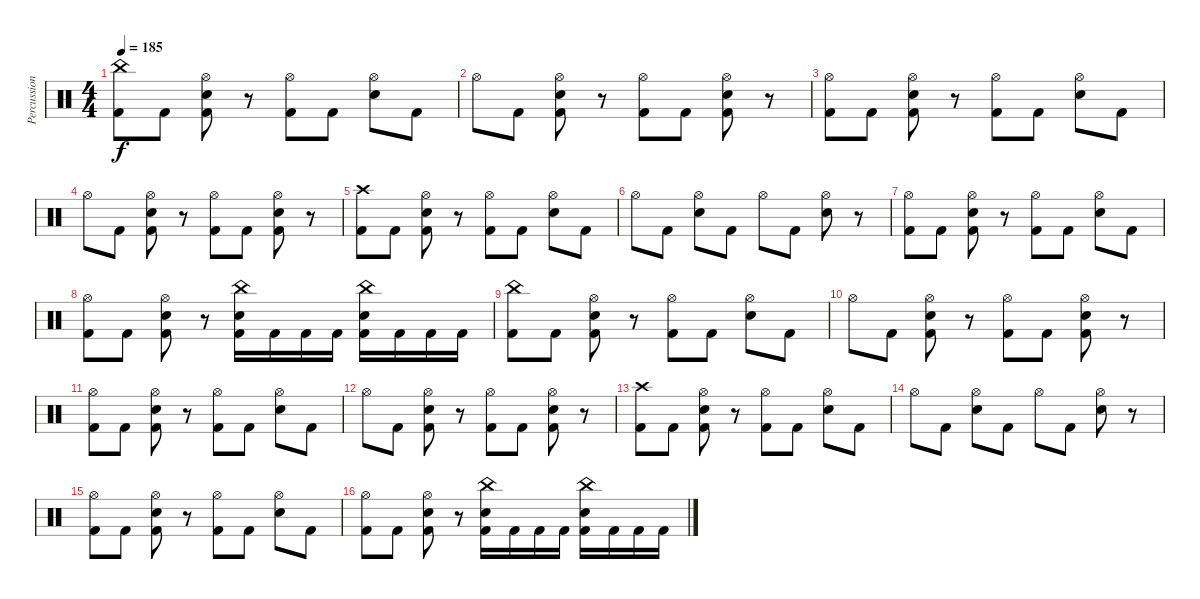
\track ("Percussion" "Percussion") {instrument percussion}
\staff {score}
\articulation defaults
\ts (4 4)
\tempo 185
\clef neutral
\ks c
("China (hit)" "Kick (hit) 2").8{dy f} "Kick (hit) 2".8 ("Snare (hit) 2" "Hi-Hat (open)" "Kick (hit) 2").8 r.8 ("Hi-Hat (open)" "Kick (hit) 2").8 "Kick (hit) 2".8 ("Snare (hit) 2" "Hi-Hat (open)").8 "Kick (hit) 2".8 |
"Hi-Hat (open)".8 "Kick (hit) 2".8 ("Snare (hit) 2" "Hi-Hat (open)" "Kick (hit) 2").8 r.8 ("Hi-Hat (open)" "Kick (hit) 2").8 "Kick (hit) 2".8 ("Snare (hit) 2" "Hi-Hat (open)" "Kick (hit) 2").8 r.8 |
("Hi-Hat (open)" "Kick (hit) 2").8 "Kick (hit) 2".8 ("Snare (hit) 2" "Hi-Hat (open)" "Kick (hit) 2").8 r.8 ("Hi-Hat (open)" "Kick (hit) 2").8 "Kick (hit) 2".8 ("Snare (hit) 2" "Hi-Hat (open)").8 "Kick (hit) 2".8 |
"Hi-Hat (open)".8 "Kick (hit) 2".8 ("Snare (hit) 2" "Hi-Hat (open)" "Kick (hit) 2").8 r.8 ("Hi-Hat (open)" "Kick (hit) 2").8 "Kick (hit) 2".8 ("Snare (hit) 2" "Hi-Hat (open)" "Kick (hit) 2").8 r.8 |
("Crash high (hit)" "Kick (hit) 2").8 "Kick (hit) 2".8 ("Snare (hit) 2" "Hi-Hat (open)" "Kick (hit) 2").8 r.8 ("Hi-Hat (open)" "Kick (hit) 2").8 "Kick (hit) 2".8 ("Snare (hit) 2" "Hi-Hat (open)").8 "Kick (hit) 2".8 |
"Hi-Hat (open)".8 "Kick (hit) 2".8 ("Snare (hit) 2" "Hi-Hat (open)").8 "Kick (hit) 2".8 "Hi-Hat (open)".8 "Kick (hit) 2".8 ("Snare (hit) 2" "Hi-Hat (open)").8 r.8 |
("Hi-Hat (open)" "Kick (hit) 2").8 "Kick (hit) 2".8 ("Snare (hit) 2" "Hi-Hat (open)" "Kick (hit) 2").8 r.8 ("Hi-Hat (open)" "Kick (hit) 2").8 "Kick (hit) 2".8 ("Snare (hit) 2" "Hi-Hat (open)").8 "Kick (hit) 2".8 |
("Hi-Hat (open)" "Kick (hit) 2").8 "Kick (hit) 2".8 ("Snare (hit) 2" "Hi-Hat (open)" "Kick (hit) 2").8 r.8 ("Snare (hit) 2" "China (hit)" "Kick (hit) 2").16 "Kick (hit) 2".16 "Kick (hit) 2".16 "Kick (hit) 2".16 ("Snare (hit) 2" "China (hit)" "Kick (hit) 2").16 "Kick (hit) 2".16 "Kick (hit) 2".16 "Kick (hit) 2".16 |
("China (hit)" "Kick (hit) 2").8 "Kick (hit) 2".8 ("Snare (hit) 2" "Hi-Hat (open)" "Kick (hit) 2").8 r.8 ("Hi-Hat (open)" "Kick (hit) 2").8 "Kick (hit) 2".8 ("Snare (hit) 2" "Hi-Hat (open)").8 "Kick (hit) 2".8 |
"Hi-Hat (open)".8 "Kick (hit) 2".8 ("Snare (hit) 2" "Hi-Hat (open)" "Kick (hit) 2").8 r.8 ("Hi-Hat (open)" "Kick (hit) 2").8 "Kick (hit) 2".8 ("Snare (hit) 2" "Hi-Hat (open)" "Kick (hit) 2").8 r.8 |
("Hi-Hat (open)" "Kick (hit) 2").8 "Kick (hit) 2".8 ("Snare (hit) 2" "Hi-Hat (open)" "Kick (hit) 2").8 r.8 ("Hi-Hat (open)" "Kick (hit) 2").8 "Kick (hit) 2".8 ("Snare (hit) 2" "Hi-Hat (open)").8 "Kick (hit) 2".8 |
"Hi-Hat (open)".8 "Kick (hit) 2".8 ("Snare (hit) 2" "Hi-Hat (open)" "Kick (hit) 2").8 r.8 ("Hi-Hat (open)" "Kick (hit) 2").8 "Kick (hit) 2".8 ("Snare (hit) 2" "Hi-Hat (open)" "Kick (hit) 2").8 r.8 |
("Crash high (hit)" "Kick (hit) 2").8 "Kick (hit) 2".8 ("Snare (hit) 2" "Hi-Hat (open)" "Kick (hit) 2").8 r.8 ("Hi-Hat (open)" "Kick (hit) 2").8 "Kick (hit) 2".8 ("Snare (hit) 2" "Hi-Hat (open)").8 "Kick (hit) 2".8 |
"Hi-Hat (open)".8 "Kick (hit) 2".8 ("Snare (hit) 2" "Hi-Hat (open)").8 "Kick (hit) 2".8 "Hi-Hat (open)".8 "Kick (hit) 2".8 ("Snare (hit) 2" "Hi-Hat (open)").8 r.8 |
("Hi-Hat (open)" "Kick (hit) 2").8 "Kick (hit) 2".8 ("Snare (hit) 2" "Hi-Hat (open)" "Kick (hit) 2").8 r.8 ("Hi-Hat (open)" "Kick (hit) 2").8 "Kick (hit) 2".8 ("Snare (hit) 2" "Hi-Hat (open)").8 "Kick (hit) 2".8 |
("Hi-Hat (open)" "Kick (hit) 2").8 "Kick (hit) 2".8 ("Snare (hit) 2" "Hi-Hat (open)" "Kick (hit) 2").8 r.8 ("Snare (hit) 2" "China (hit)" "Kick (hit) 2").16 "Kick (hit) 2".16 "Kick (hit) 2".16 "Kick (hit) 2".16 ("Snare (hit) 2" "China (hit)" "Kick (hit) 2").16 "Kick (hit) 2".16 "Kick (hit) 2".16 "Kick (hit) 2".16
